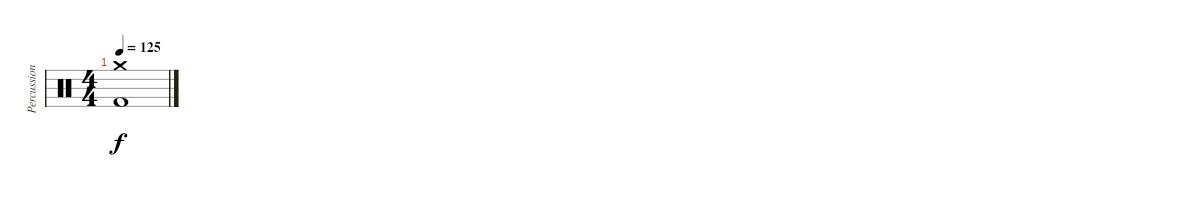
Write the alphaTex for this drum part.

\track ("Percussion" "Percussion") {instrument percussion}
\staff {score}
\articulation defaults
\ts (4 4)
\tempo 125
\clef neutral
\ks c
("Crash medium (hit)" "Kick (hit) 2").1{dy f}
